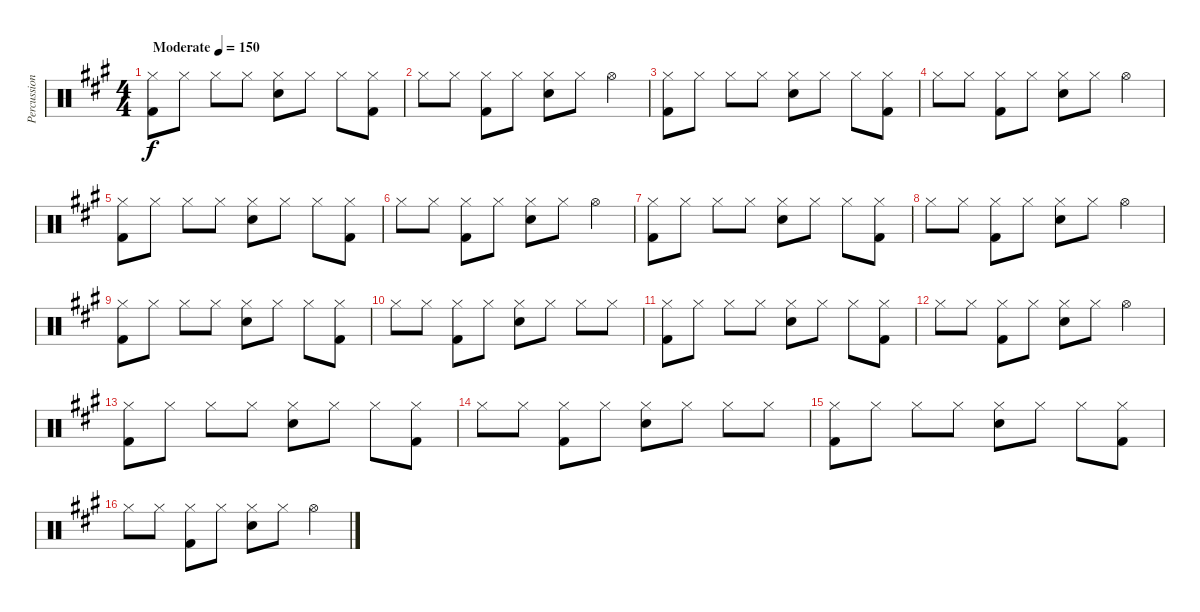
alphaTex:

\track ("Percussion" "Percussion") {instrument percussion}
\staff {score}
\articulation defaults
\ts (4 4)
\tempo (150 "Moderate")
\clef neutral
\ks a
("Kick (hit) 2" "Hi-Hat (closed)").8{dy f} "Hi-Hat (closed)".8 "Hi-Hat (closed)".8 "Hi-Hat (closed)".8 ("Snare (hit) 2" "Hi-Hat (closed)").8 "Hi-Hat (closed)".8 "Hi-Hat (closed)".8 ("Kick (hit) 2" "Hi-Hat (closed)").8 |
"Hi-Hat (closed)".8 "Hi-Hat (closed)".8 ("Kick (hit) 2" "Hi-Hat (closed)").8 "Hi-Hat (closed)".8 ("Snare (hit) 2" "Hi-Hat (closed)").8 "Hi-Hat (closed)".8 "Hi-Hat (open)".4 |
("Kick (hit) 2" "Hi-Hat (closed)").8 "Hi-Hat (closed)".8 "Hi-Hat (closed)".8 "Hi-Hat (closed)".8 ("Snare (hit) 2" "Hi-Hat (closed)").8 "Hi-Hat (closed)".8 "Hi-Hat (closed)".8 ("Kick (hit) 2" "Hi-Hat (closed)").8 |
"Hi-Hat (closed)".8 "Hi-Hat (closed)".8 ("Kick (hit) 2" "Hi-Hat (closed)").8 "Hi-Hat (closed)".8 ("Snare (hit) 2" "Hi-Hat (closed)").8 "Hi-Hat (closed)".8 "Hi-Hat (open)".4 |
("Kick (hit) 2" "Hi-Hat (closed)").8 "Hi-Hat (closed)".8 "Hi-Hat (closed)".8 "Hi-Hat (closed)".8 ("Snare (hit) 2" "Hi-Hat (closed)").8 "Hi-Hat (closed)".8 "Hi-Hat (closed)".8 ("Kick (hit) 2" "Hi-Hat (closed)").8 |
"Hi-Hat (closed)".8 "Hi-Hat (closed)".8 ("Kick (hit) 2" "Hi-Hat (closed)").8 "Hi-Hat (closed)".8 ("Snare (hit) 2" "Hi-Hat (closed)").8 "Hi-Hat (closed)".8 "Hi-Hat (open)".4 |
("Kick (hit) 2" "Hi-Hat (closed)").8 "Hi-Hat (closed)".8 "Hi-Hat (closed)".8 "Hi-Hat (closed)".8 ("Snare (hit) 2" "Hi-Hat (closed)").8 "Hi-Hat (closed)".8 "Hi-Hat (closed)".8 ("Kick (hit) 2" "Hi-Hat (closed)").8 |
"Hi-Hat (closed)".8 "Hi-Hat (closed)".8 ("Kick (hit) 2" "Hi-Hat (closed)").8 "Hi-Hat (closed)".8 ("Snare (hit) 2" "Hi-Hat (closed)").8 "Hi-Hat (closed)".8 "Hi-Hat (open)".4 |
("Kick (hit) 2" "Hi-Hat (closed)").8 "Hi-Hat (closed)".8 "Hi-Hat (closed)".8 "Hi-Hat (closed)".8 ("Snare (hit) 2" "Hi-Hat (closed)").8 "Hi-Hat (closed)".8 "Hi-Hat (closed)".8 ("Kick (hit) 2" "Hi-Hat (closed)").8 |
"Hi-Hat (closed)".8 "Hi-Hat (closed)".8 ("Kick (hit) 2" "Hi-Hat (closed)").8 "Hi-Hat (closed)".8 ("Snare (hit) 2" "Hi-Hat (closed)").8 "Hi-Hat (closed)".8 "Hi-Hat (closed)".8 "Hi-Hat (closed)".8 |
("Kick (hit) 2" "Hi-Hat (closed)").8 "Hi-Hat (closed)".8 "Hi-Hat (closed)".8 "Hi-Hat (closed)".8 ("Snare (hit) 2" "Hi-Hat (closed)").8 "Hi-Hat (closed)".8 "Hi-Hat (closed)".8 ("Kick (hit) 2" "Hi-Hat (closed)").8 |
"Hi-Hat (closed)".8 "Hi-Hat (closed)".8 ("Kick (hit) 2" "Hi-Hat (closed)").8 "Hi-Hat (closed)".8 ("Snare (hit) 2" "Hi-Hat (closed)").8 "Hi-Hat (closed)".8 "Hi-Hat (open)".4 |
("Kick (hit) 2" "Hi-Hat (closed)").8 "Hi-Hat (closed)".8 "Hi-Hat (closed)".8 "Hi-Hat (closed)".8 ("Snare (hit) 2" "Hi-Hat (closed)").8 "Hi-Hat (closed)".8 "Hi-Hat (closed)".8 ("Kick (hit) 2" "Hi-Hat (closed)").8 |
"Hi-Hat (closed)".8 "Hi-Hat (closed)".8 ("Kick (hit) 2" "Hi-Hat (closed)").8 "Hi-Hat (closed)".8 ("Snare (hit) 2" "Hi-Hat (closed)").8 "Hi-Hat (closed)".8 "Hi-Hat (closed)".8 "Hi-Hat (closed)".8 |
("Kick (hit) 2" "Hi-Hat (closed)").8 "Hi-Hat (closed)".8 "Hi-Hat (closed)".8 "Hi-Hat (closed)".8 ("Snare (hit) 2" "Hi-Hat (closed)").8 "Hi-Hat (closed)".8 "Hi-Hat (closed)".8 ("Kick (hit) 2" "Hi-Hat (closed)").8 |
"Hi-Hat (closed)".8 "Hi-Hat (closed)".8 ("Kick (hit) 2" "Hi-Hat (closed)").8 "Hi-Hat (closed)".8 ("Snare (hit) 2" "Hi-Hat (closed)").8 "Hi-Hat (closed)".8 "Hi-Hat (open)".4
